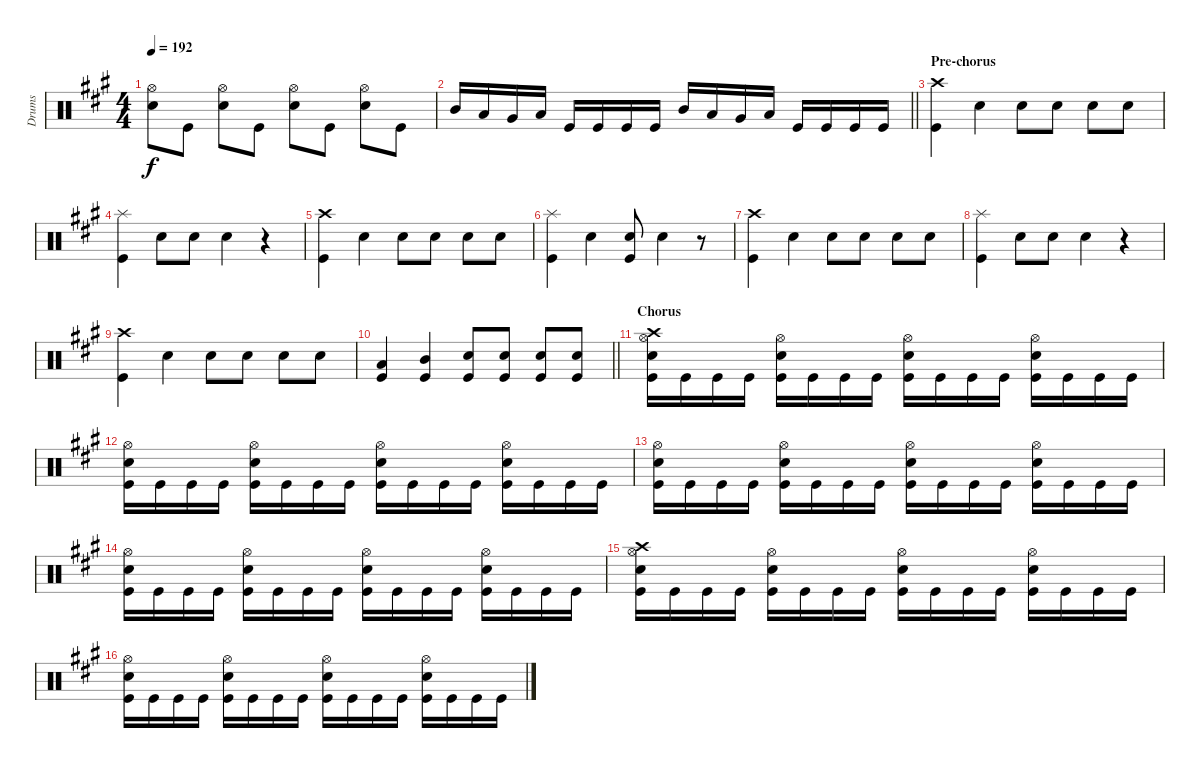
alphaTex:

\track ("Drums" "Drums") {instrument percussion}
\staff {score}
\articulation defaults
\ts (4 4)
\tempo 192
\clef neutral
\ks f#minor
("Hi-Hat (open)" "Snare (hit) 2").8{dy f} "Kick (hit)".8 ("Hi-Hat (open)" "Snare (hit) 2").8 "Kick (hit)".8 ("Hi-Hat (open)" "Snare (hit) 2").8 "Kick (hit)".8 ("Hi-Hat (open)" "Snare (hit) 2").8 "Kick (hit)".8 |
\barLineRight lightlight "Mid Tom (hit)".16 "Low Tom (hit)".16 "Very Low Tom (hit)".16 "Low Floor Tom (hit)".16 "Kick (hit)".16 "Kick (hit)".16 "Kick (hit)".16 "Kick (hit)".16 "Mid Tom (hit)".16 "Low Tom (hit)".16 "Very Low Tom (hit)".16 "Low Floor Tom (hit)".16 "Kick (hit)".16 "Kick (hit)".16 "Kick (hit)".16 "Kick (hit)".16
|
\section ("" "Pre-chorus")
("Crash high (hit)" "Kick (hit)").4 "Snare (hit) 2".4 "Snare (hit) 2".8 "Snare (hit) 2".8 "Snare (hit) 2".8 "Snare (hit) 2".8 |
("Splash (hit)" "Kick (hit)").4 "Snare (hit) 2".8 "Snare (hit) 2".8 "Snare (hit) 2".4 r.4 |
("Crash high (hit)" "Kick (hit)").4 "Snare (hit) 2".4 "Snare (hit) 2".8 "Snare (hit) 2".8 "Snare (hit) 2".8 "Snare (hit) 2".8 |
("Splash (hit)" "Kick (hit)").4 "Snare (hit) 2"{tr (38 16)}.4 ("Snare (hit) 2" "Kick (hit)").8 "Snare (hit) 2".4 r.8 |
("Crash high (hit)" "Kick (hit)").4 "Snare (hit) 2".4 "Snare (hit) 2".8 "Snare (hit) 2".8 "Snare (hit) 2".8 "Snare (hit) 2".8 |
("Splash (hit)" "Kick (hit)").4 "Snare (hit) 2".8 "Snare (hit) 2".8 "Snare (hit) 2".4 r.4 |
("Crash high (hit)" "Kick (hit)").4 "Snare (hit) 2"{tr (38 16)}.4 "Snare (hit) 2".8 "Snare (hit) 2".8 "Snare (hit) 2".8 "Snare (hit) 2".8 |
\barLineRight lightlight
("Low Tom (hit)" "Kick (hit)").4 ("Mid Tom (hit)" "Kick (hit)").4 ("Snare (hit) 2" "Kick (hit)").8 ("Snare (hit) 2" "Kick (hit)").8 ("Snare (hit) 2" "Kick (hit)").8 ("Snare (hit) 2" "Kick (hit)").8 |
\section ("" "Chorus")
("Crash high (hit)" "Hi-Hat (open)" "Snare (hit) 2" "Kick (hit)").16 "Kick (hit)".16 "Kick (hit)".16 "Kick (hit)".16 ("Hi-Hat (open)" "Snare (hit) 2" "Kick (hit)").16 "Kick (hit)".16 "Kick (hit)".16 "Kick (hit)".16 ("Hi-Hat (open)" "Snare (hit) 2" "Kick (hit)").16 "Kick (hit)".16 "Kick (hit)".16 "Kick (hit)".16 ("Hi-Hat (open)" "Snare (hit) 2" "Kick (hit)").16 "Kick (hit)".16 "Kick (hit)".16 "Kick (hit)".16 |
("Hi-Hat (open)" "Snare (hit) 2" "Kick (hit)").16 "Kick (hit)".16 "Kick (hit)".16 "Kick (hit)".16 ("Hi-Hat (open)" "Snare (hit) 2" "Kick (hit)").16 "Kick (hit)".16 "Kick (hit)".16 "Kick (hit)".16 ("Hi-Hat (open)" "Snare (hit) 2" "Kick (hit)").16 "Kick (hit)".16 "Kick (hit)".16 "Kick (hit)".16 ("Hi-Hat (open)" "Snare (hit) 2" "Kick (hit)").16 "Kick (hit)".16 "Kick (hit)".16 "Kick (hit)".16 |
("Hi-Hat (open)" "Snare (hit) 2" "Kick (hit)").16 "Kick (hit)".16 "Kick (hit)".16 "Kick (hit)".16 ("Hi-Hat (open)" "Snare (hit) 2" "Kick (hit)").16 "Kick (hit)".16 "Kick (hit)".16 "Kick (hit)".16 ("Hi-Hat (open)" "Snare (hit) 2" "Kick (hit)").16 "Kick (hit)".16 "Kick (hit)".16 "Kick (hit)".16 ("Hi-Hat (open)" "Snare (hit) 2" "Kick (hit)").16 "Kick (hit)".16 "Kick (hit)".16 "Kick (hit)".16 |
("Hi-Hat (open)" "Snare (hit) 2" "Kick (hit)").16 "Kick (hit)".16 "Kick (hit)".16 "Kick (hit)".16 ("Hi-Hat (open)" "Snare (hit) 2" "Kick (hit)").16 "Kick (hit)".16 "Kick (hit)".16 "Kick (hit)".16 ("Hi-Hat (open)" "Snare (hit) 2" "Kick (hit)").16 "Kick (hit)".16 "Kick (hit)".16 "Kick (hit)".16 ("Hi-Hat (open)" "Snare (hit) 2" "Kick (hit)").16 "Kick (hit)".16 "Kick (hit)".16 "Kick (hit)".16 |
("Crash high (hit)" "Hi-Hat (open)" "Snare (hit) 2" "Kick (hit)").16 "Kick (hit)".16 "Kick (hit)".16 "Kick (hit)".16 ("Hi-Hat (open)" "Snare (hit) 2" "Kick (hit)").16 "Kick (hit)".16 "Kick (hit)".16 "Kick (hit)".16 ("Hi-Hat (open)" "Snare (hit) 2" "Kick (hit)").16 "Kick (hit)".16 "Kick (hit)".16 "Kick (hit)".16 ("Hi-Hat (open)" "Snare (hit) 2" "Kick (hit)").16 "Kick (hit)".16 "Kick (hit)".16 "Kick (hit)".16 |
("Hi-Hat (open)" "Snare (hit) 2" "Kick (hit)").16 "Kick (hit)".16 "Kick (hit)".16 "Kick (hit)".16 ("Hi-Hat (open)" "Snare (hit) 2" "Kick (hit)").16 "Kick (hit)".16 "Kick (hit)".16 "Kick (hit)".16 ("Hi-Hat (open)" "Snare (hit) 2" "Kick (hit)").16 "Kick (hit)".16 "Kick (hit)".16 "Kick (hit)".16 ("Hi-Hat (open)" "Snare (hit) 2" "Kick (hit)").16 "Kick (hit)".16 "Kick (hit)".16 "Kick (hit)".16
